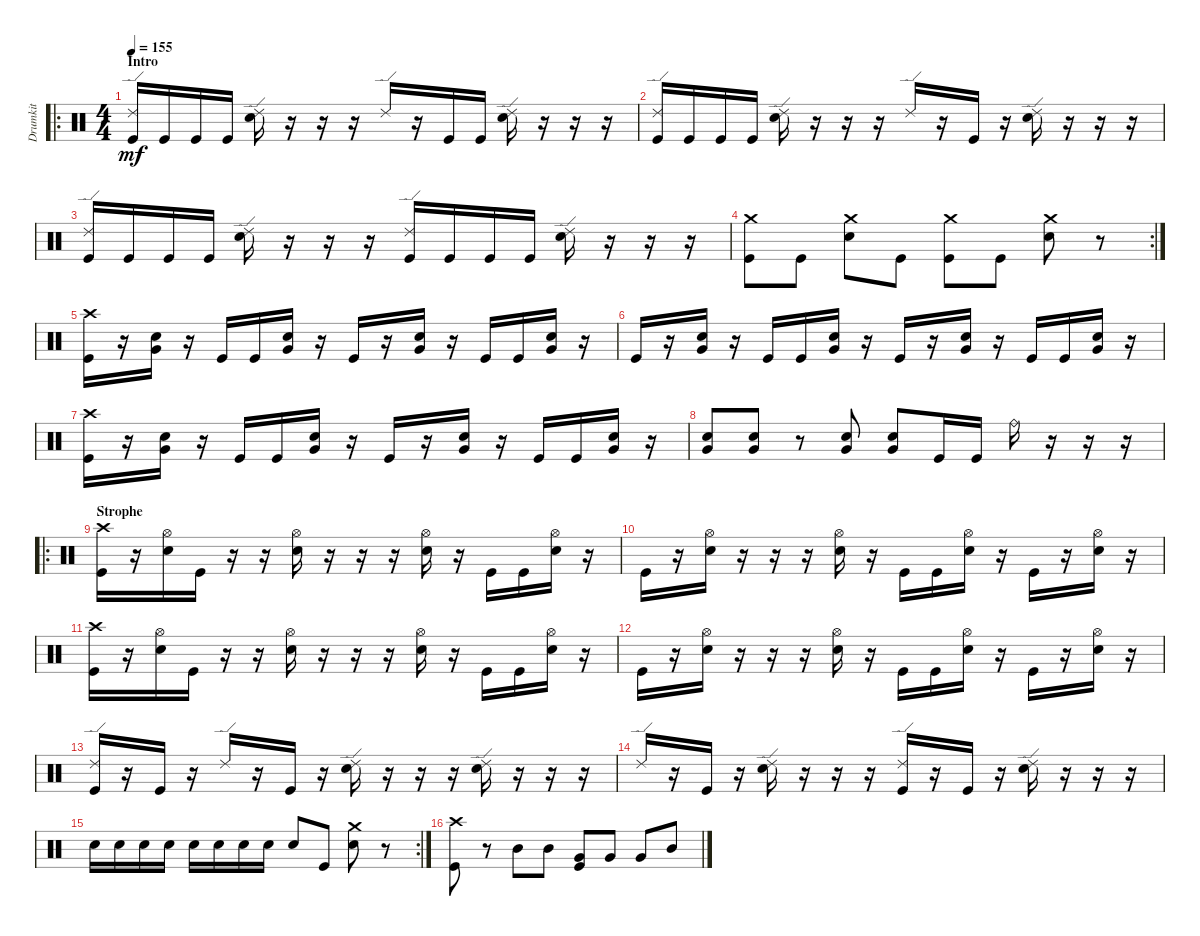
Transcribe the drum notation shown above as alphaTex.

\track ("Drumkit" "Drumkit") {instrument percussion}
\staff {score}
\articulation defaults
\ro
\ts (4 4)
\section ("" "Intro")
\tempo 155
\clef neutral
\ks c
("Kick (hit)" "Ride (edge) 2").16{dy mf} "Kick (hit)".16 "Kick (hit)".16 "Kick (hit)".16 ("Snare (hit) 2" "Ride (edge) 2").16 r.16 r.16 r.16 "Ride (edge) 2".16 r.16 "Kick (hit)".16 "Kick (hit)".16 ("Snare (hit) 2" "Ride (edge) 2").16 r.16 r.16 r.16 |
("Kick (hit)" "Ride (edge) 2").16 "Kick (hit)".16 "Kick (hit)".16 "Kick (hit)".16 ("Snare (hit) 2" "Ride (edge) 2").16 r.16 r.16 r.16 "Ride (edge) 2".16 r.16 "Kick (hit)".16 r.16 ("Snare (hit) 2" "Ride (edge) 2").16 r.16 r.16 r.16 |
("Kick (hit)" "Ride (edge) 2").16 "Kick (hit)".16 "Kick (hit)".16 "Kick (hit)".16 ("Snare (hit) 2" "Ride (edge) 2").16 r.16 r.16 r.16 ("Kick (hit)" "Ride (edge) 2").16 "Kick (hit)".16 "Kick (hit)".16 "Kick (hit)".16 ("Snare (hit) 2" "Ride (edge) 2").16 r.16 r.16 r.16 |
\rc 2
("Crash medium (hit)" "Kick (hit)").8 "Kick (hit)".8 ("Snare (hit) 2" "Crash medium (hit)").8 "Kick (hit)".8 ("Kick (hit)" "Crash medium (hit)").8 "Kick (hit)".8 ("Snare (hit) 2" "Crash medium (hit)").8 r.8 |
("Kick (hit)" "Crash high (hit)").16 r.16 ("Snare (hit) 2" "Very Low Tom (hit)").16 r.16 "Kick (hit)".16 "Kick (hit)".16 ("Snare (hit) 2" "Very Low Tom (hit)").16 r.16 "Kick (hit)".16 r.16 ("Snare (hit) 2" "Very Low Tom (hit)").16 r.16 "Kick (hit)".16 "Kick (hit)".16 ("Snare (hit) 2" "Very Low Tom (hit)").16 r.16 |
"Kick (hit)".16 r.16 ("Snare (hit) 2" "Very Low Tom (hit)").16 r.16 "Kick (hit)".16 "Kick (hit)".16 ("Snare (hit) 2" "Very Low Tom (hit)").16 r.16 "Kick (hit)".16 r.16 ("Snare (hit) 2" "Very Low Tom (hit)").16 r.16 "Kick (hit)".16 "Kick (hit)".16 ("Snare (hit) 2" "Very Low Tom (hit)").16 r.16 |
("Kick (hit)" "Crash high (hit)").16 r.16 ("Snare (hit) 2" "Very Low Tom (hit)").16 r.16 "Kick (hit)".16 "Kick (hit)".16 ("Snare (hit) 2" "Very Low Tom (hit)").16 r.16 "Kick (hit)".16 r.16 ("Snare (hit) 2" "Very Low Tom (hit)").16 r.16 "Kick (hit)".16 "Kick (hit)".16 ("Snare (hit) 2" "Very Low Tom (hit)").16 r.16 |
("Very Low Tom (hit)" "Snare (hit) 2").8 ("Very Low Tom (hit)" "Snare (hit) 2").8 r.8 ("Very Low Tom (hit)" "Snare (hit) 2").8 ("Very Low Tom (hit)" "Snare (hit) 2").8 "Kick (hit)".16 "Kick (hit)".16 "Ride (bell)".16 r.16 r.16 r.16 |
\ro
\section ("" "Strophe")
("Kick (hit)" "Crash high (hit)").16 r.16 ("Snare (hit) 2" "Hi-Hat (open)").16 "Kick (hit)".16 r.16 r.16 ("Snare (hit) 2" "Hi-Hat (open)").16 r.16 r.16 r.16 ("Snare (hit) 2" "Hi-Hat (open)").16 r.16 "Kick (hit)".16 "Kick (hit)".16 ("Snare (hit) 2" "Hi-Hat (open)").16 r.16 |
"Kick (hit)".16 r.16 ("Snare (hit) 2" "Hi-Hat (open)").16 r.16 r.16 r.16 ("Snare (hit) 2" "Hi-Hat (open)").16 r.16 "Kick (hit)".16 "Kick (hit)".16 ("Snare (hit) 2" "Hi-Hat (open)").16 r.16 "Kick (hit)".16 r.16 ("Snare (hit) 2" "Hi-Hat (open)").16 r.16 |
("Kick (hit)" "Crash high (hit)").16 r.16 ("Snare (hit) 2" "Hi-Hat (open)").16 "Kick (hit)".16 r.16 r.16 ("Snare (hit) 2" "Hi-Hat (open)").16 r.16 r.16 r.16 ("Snare (hit) 2" "Hi-Hat (open)").16 r.16 "Kick (hit)".16 "Kick (hit)".16 ("Snare (hit) 2" "Hi-Hat (open)").16 r.16 |
"Kick (hit)".16 r.16 ("Snare (hit) 2" "Hi-Hat (open)").16 r.16 r.16 r.16 ("Snare (hit) 2" "Hi-Hat (open)").16 r.16 "Kick (hit)".16 "Kick (hit)".16 ("Snare (hit) 2" "Hi-Hat (open)").16 r.16 "Kick (hit)".16 r.16 ("Snare (hit) 2" "Hi-Hat (open)").16 r.16 |
("Kick (hit)" "Ride (edge) 2").16 r.16 "Kick (hit)".16 r.16 "Ride (edge) 2".16 r.16 "Kick (hit)".16 r.16 ("Snare (hit) 2" "Ride (edge) 2").16 r.16 r.16 r.16 ("Ride (edge) 2" "Snare (hit) 2").16 r.16 r.16 r.16 |
"Ride (edge) 2".16 r.16 "Kick (hit)".16 r.16 ("Ride (edge) 2" "Snare (hit) 2").16 r.16 r.16 r.16 ("Ride (edge) 2" "Kick (hit)").16 r.16 "Kick (hit)".16 r.16 ("Ride (edge) 2" "Snare (hit) 2").16 r.16 r.16 r.16 |
\rc 2 "Snare (hit) 2".16 "Snare (hit) 2".16 "Snare (hit) 2".16 "Snare (hit) 2".16 "Snare (hit) 2".16 "Snare (hit) 2".16 "Snare (hit) 2".16 "Snare (hit) 2".16 "Snare (hit) 2".8 "Kick (hit)".8
("Snare (hit) 2" "Crash medium (hit)").8 r.8 |
("Kick (hit)" "Crash high (hit)").8 r.8 "Mid Tom (hit)".8 "Mid Tom (hit)".8 ("Kick (hit)" "Very Low Tom (hit)").8 "Very Low Tom (hit)".8 "Very Low Tom (hit)".8 "Mid Tom (hit)".8
